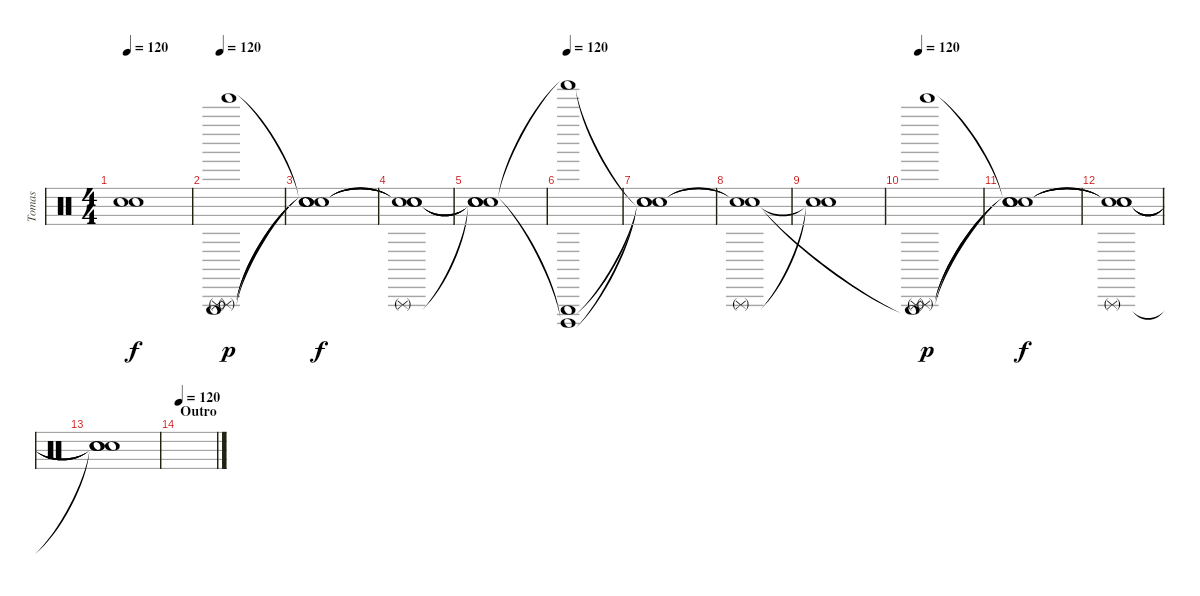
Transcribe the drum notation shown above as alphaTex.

\track ("Tomas" "Tomas") {instrument percussion}
\staff {score}
\articulation defaults
\ts (4 4)
\tempo 120
\clef neutral
\ks c
("Snare (hit)"{t} "Snare (hit)"{t}).1{dy f} |
\tempo 120
("Tinkle Bell (hit)" "Triangle (rnute)" "Triangle (hit)" "Triangle (rnute)").1{dy p} |
("Snare (hit)"{t} "Snare (hit)"{t} "Snare (hit)"{t} "Snare (hit)"{t}).1{dy f} |
("Snare (hit)"{t} "Triangle (rnute)" "Snare (hit)"{t} "Snare (hit)"{t}).1 |
("Snare (hit)"{t} "Snare (hit)"{t} "Snare (hit)"{t} "Snare (hit)"{t}).1 |
\tempo 120
("Triangle (hit)" "Shaker (hit)"{t} "Cuica (open)"{t}).1 |
("Snare (hit)"{t} "Snare (hit)"{t} "Snare (hit)"{t}).1 |
("Triangle (rnute)" "Snare (hit)"{t} "Snare (hit)"{t}).1 |
("Snare (hit)"{t} "Snare (hit)"{t}).1 |
\tempo 120
("Tinkle Bell (hit)" "Triangle (rnute)" "Triangle (hit)"{t} "Triangle (rnute)").1{dy p} |
("Snare (hit)"{t} "Snare (hit)"{t} "Snare (hit)"{t} "Snare (hit)"{t}).1{dy f} |
("Snare (hit)"{t} "Triangle (rnute)" "Snare (hit)"{t} "Snare (hit)"{t}).1{volume 0} |
("Snare (hit)"{t} "Snare (hit)"{t} "Snare (hit)"{t} "Snare (hit)"{t}).1 |
\section ("" "Outro")
\tempo 120
